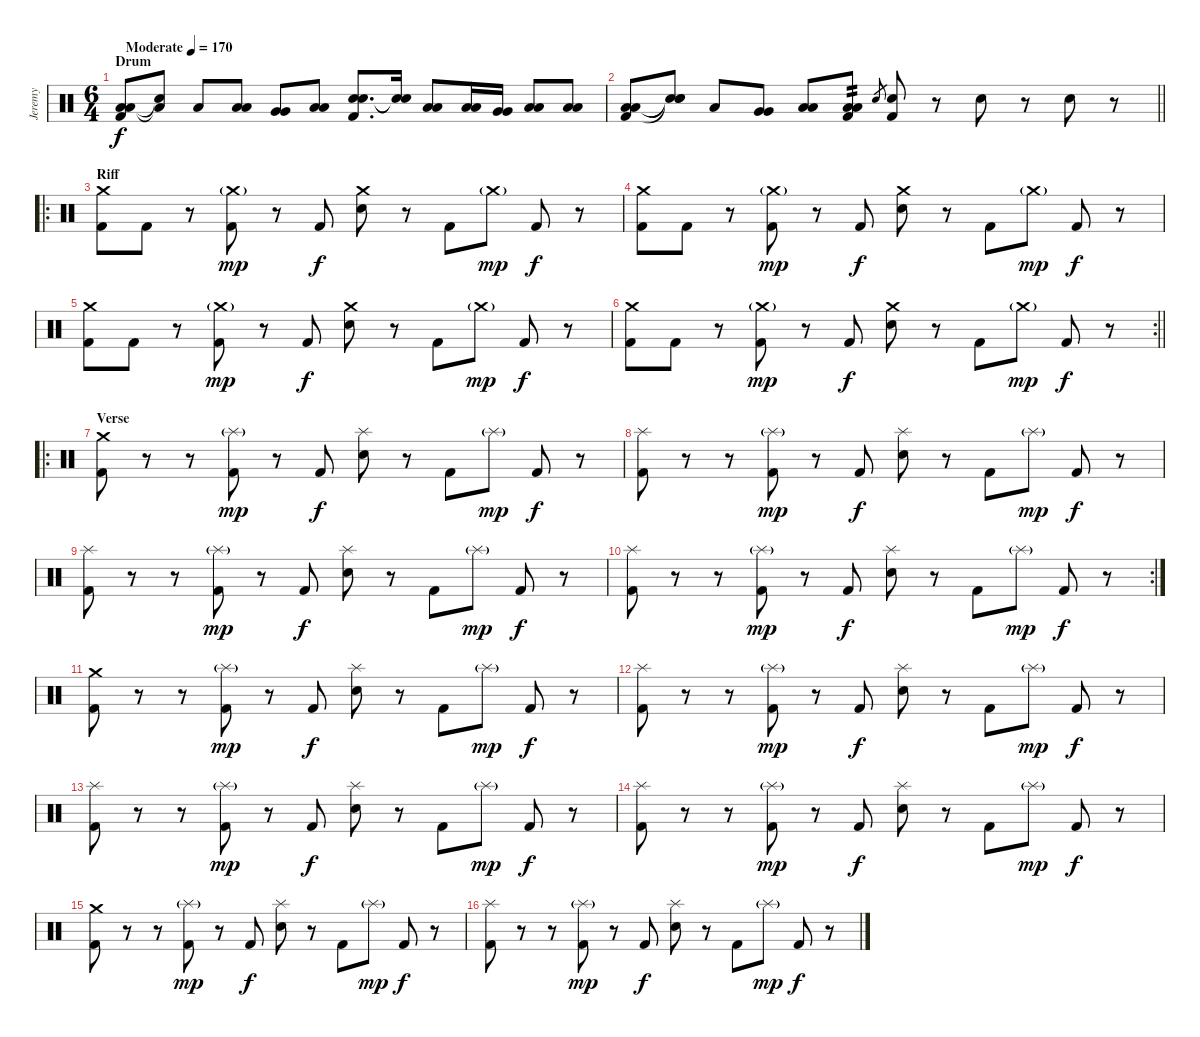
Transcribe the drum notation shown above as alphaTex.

\track ("Jeremy" "Jeremy") {instrument percussion}
\staff {score}
\articulation defaults
\ts (6 4)
\section ("" "Drum")
\tempo (170 "Moderate")
\clef neutral
\ks c
("Low Floor Tom (hit)" "Low Floor Tom (hit)" "Kick (hit) 2").8{dy f} ("Snare (hit)"{t} "Low Tom (hit)"{t}).8 "Low Floor Tom (hit)".8 ("Low Tom (hit)" "Low Tom (hit)").8 ("Very Low Tom (hit)" "Very Low Tom (hit)").8 ("Low Floor Tom (hit)" "Low Floor Tom (hit)").8 ("Snare (hit) 2" "Snare (hit) 2" "Kick (hit) 2").8{d} ("Snare (hit)"{t} "Snare (hit)"{t}).16 ("Low Floor Tom (hit)" "Low Floor Tom (hit)").8 ("Low Tom (hit)" "Low Tom (hit)").16 ("Very Low Tom (hit)" "Very Low Tom (hit)").16 ("Low Floor Tom (hit)" "Low Floor Tom (hit)").8 ("Low Floor Tom (hit)" "Low Floor Tom (hit)").8 |
\barLineRight lightlight
("Low Floor Tom (hit)" "Low Floor Tom (hit)" "Kick (hit) 2").8 ("Snare (hit)"{t} "Snare (hit)"{t} "Snare (hit)"{t}).8 "Low Tom (hit)".8 ("Very Low Tom (hit)" "Very Low Tom (hit)").8 ("Low Floor Tom (hit)" "Low Floor Tom (hit)").8 ("Low Floor Tom (hit)" "Low Floor Tom (hit)" "Kick (hit) 2").8{tp 2} "Snare (hit) 2".8{gr} ("Snare (hit) 2" "Kick (hit) 2").8 r.8 "Snare (hit) 2".8 r.8 "Snare (hit) 2".8 r.8 |
\ro
\section ("" "Riff")
("Crash medium (hit)" "Kick (hit) 2").8 "Kick (hit) 2".8 r.8 ("Crash medium (hit)"{g} "Kick (hit) 2").8{dy mp} r.8 "Kick (hit) 2".8{dy f} ("Crash medium (hit)" "Electric Snare (hit)").8 r.8 "Kick (hit) 2".8 "Crash medium (hit)"{g}.8{dy mp} "Kick (hit) 2".8{dy f} r.8 |
("Crash medium (hit)" "Kick (hit) 2").8 "Kick (hit) 2".8 r.8 ("Crash medium (hit)"{g} "Kick (hit) 2").8{dy mp} r.8 "Kick (hit) 2".8{dy f} ("Crash medium (hit)" "Electric Snare (hit)").8 r.8 "Kick (hit) 2".8 "Crash medium (hit)"{g}.8{dy mp} "Kick (hit) 2".8{dy f} r.8 |
("Crash medium (hit)" "Kick (hit) 2").8 "Kick (hit) 2".8 r.8 ("Crash medium (hit)"{g} "Kick (hit) 2").8{dy mp} r.8 "Kick (hit) 2".8{dy f} ("Crash medium (hit)" "Electric Snare (hit)").8 r.8 "Kick (hit) 2".8 "Crash medium (hit)"{g}.8{dy mp} "Kick (hit) 2".8{dy f} r.8 |
\rc 2
\barLineRight lightlight
("Crash medium (hit)" "Kick (hit) 2").8 "Kick (hit) 2".8 r.8 ("Crash medium (hit)"{g} "Kick (hit) 2").8{dy mp} r.8 "Kick (hit) 2".8{dy f} ("Crash medium (hit)" "Electric Snare (hit)").8 r.8 "Kick (hit) 2".8 "Crash medium (hit)"{g}.8{dy mp} "Kick (hit) 2".8{dy f} r.8 |
\ro
\section ("" "Verse")
("Crash medium (hit)" "Kick (hit) 2").8 r.8 r.8 ("Splash (hit)"{g} "Kick (hit) 2").8{dy mp} r.8 "Kick (hit) 2".8{dy f} ("Splash (hit)" "Electric Snare (hit)").8 r.8 "Kick (hit) 2".8 "Splash (hit)"{g}.8{dy mp} "Kick (hit) 2".8{dy f} r.8 |
("Splash (hit)" "Kick (hit) 2").8 r.8 r.8 ("Splash (hit)"{g} "Kick (hit) 2").8{dy mp} r.8 "Kick (hit) 2".8{dy f} ("Splash (hit)" "Electric Snare (hit)").8 r.8 "Kick (hit) 2".8 "Splash (hit)"{g}.8{dy mp} "Kick (hit) 2".8{dy f} r.8 |
("Splash (hit)" "Kick (hit) 2").8 r.8 r.8 ("Splash (hit)"{g} "Kick (hit) 2").8{dy mp} r.8 "Kick (hit) 2".8{dy f} ("Splash (hit)" "Electric Snare (hit)").8 r.8 "Kick (hit) 2".8 "Splash (hit)"{g}.8{dy mp} "Kick (hit) 2".8{dy f} r.8 |
\rc 2
("Splash (hit)" "Kick (hit) 2").8 r.8 r.8 ("Splash (hit)"{g} "Kick (hit) 2").8{dy mp} r.8 "Kick (hit) 2".8{dy f} ("Splash (hit)" "Electric Snare (hit)").8 r.8 "Kick (hit) 2".8 "Splash (hit)"{g}.8{dy mp} "Kick (hit) 2".8{dy f} r.8 |
("Crash medium (hit)" "Kick (hit) 2").8 r.8 r.8 ("Splash (hit)"{g} "Kick (hit) 2").8{dy mp} r.8 "Kick (hit) 2".8{dy f} ("Splash (hit)" "Electric Snare (hit)").8 r.8 "Kick (hit) 2".8 "Splash (hit)"{g}.8{dy mp} "Kick (hit) 2".8{dy f} r.8 |
("Splash (hit)" "Kick (hit) 2").8 r.8 r.8 ("Splash (hit)"{g} "Kick (hit) 2").8{dy mp} r.8 "Kick (hit) 2".8{dy f} ("Splash (hit)" "Electric Snare (hit)").8 r.8 "Kick (hit) 2".8 "Splash (hit)"{g}.8{dy mp} "Kick (hit) 2".8{dy f} r.8 |
("Splash (hit)" "Kick (hit) 2").8 r.8 r.8 ("Splash (hit)"{g} "Kick (hit) 2").8{dy mp} r.8 "Kick (hit) 2".8{dy f} ("Splash (hit)" "Electric Snare (hit)").8 r.8 "Kick (hit) 2".8 "Splash (hit)"{g}.8{dy mp} "Kick (hit) 2".8{dy f} r.8 |
("Splash (hit)" "Kick (hit) 2").8 r.8 r.8 ("Splash (hit)"{g} "Kick (hit) 2").8{dy mp} r.8 "Kick (hit) 2".8{dy f} ("Splash (hit)" "Electric Snare (hit)").8 r.8 "Kick (hit) 2".8 "Splash (hit)"{g}.8{dy mp} "Kick (hit) 2".8{dy f} r.8 |
("Crash medium (hit)" "Kick (hit) 2").8 r.8 r.8 ("Splash (hit)"{g} "Kick (hit) 2").8{dy mp} r.8 "Kick (hit) 2".8{dy f} ("Splash (hit)" "Electric Snare (hit)").8 r.8 "Kick (hit) 2".8 "Splash (hit)"{g}.8{dy mp} "Kick (hit) 2".8{dy f} r.8 |
("Splash (hit)" "Kick (hit) 2").8 r.8 r.8 ("Splash (hit)"{g} "Kick (hit) 2").8{dy mp} r.8 "Kick (hit) 2".8{dy f} ("Splash (hit)" "Electric Snare (hit)").8 r.8 "Kick (hit) 2".8 "Splash (hit)"{g}.8{dy mp} "Kick (hit) 2".8{dy f} r.8
